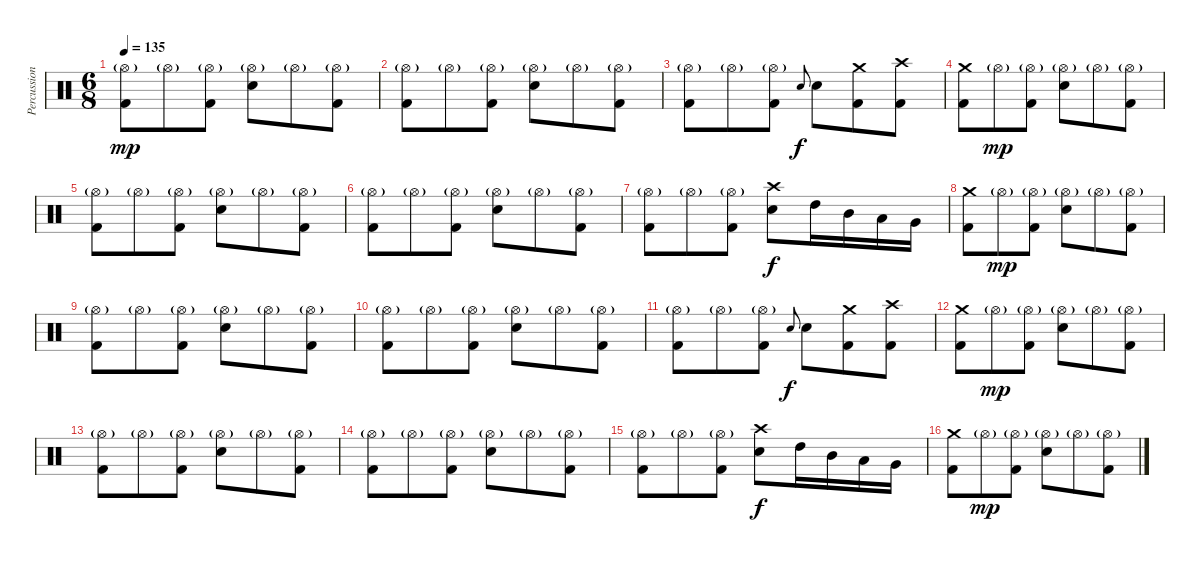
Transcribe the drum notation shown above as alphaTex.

\track ("Percussion" "Percussion") {instrument percussion}
\staff {score}
\articulation defaults
\ts (6 8)
\tempo 135
\clef neutral
\ks c
("Hi-Hat (open)"{g} "Kick (hit) 2").8{dy mp} "Hi-Hat (open)"{g}.8 ("Hi-Hat (open)"{g} "Kick (hit) 2").8 ("Hi-Hat (open)"{g} "Electric Snare (hit)").8 "Hi-Hat (open)"{g}.8 ("Hi-Hat (open)"{g} "Kick (hit) 2").8 |
("Hi-Hat (open)"{g} "Kick (hit) 2").8 "Hi-Hat (open)"{g}.8 ("Hi-Hat (open)"{g} "Kick (hit) 2").8 ("Hi-Hat (open)"{g} "Electric Snare (hit)").8 "Hi-Hat (open)"{g}.8 ("Hi-Hat (open)"{g} "Kick (hit) 2").8 |
("Hi-Hat (open)"{g} "Kick (hit) 2").8 "Hi-Hat (open)"{g}.8 ("Hi-Hat (open)"{g} "Kick (hit) 2").8 "Electric Snare (hit)".8{gr onbeat dy f} "Electric Snare (hit)".8 ("Crash medium (hit)" "Kick (hit) 2").8 ("Crash high (hit)" "Kick (hit) 2").8 |
("Crash medium (hit)" "Kick (hit) 2").8 "Hi-Hat (open)"{g}.8{dy mp} ("Hi-Hat (open)"{g} "Kick (hit) 2").8 ("Hi-Hat (open)"{g} "Electric Snare (hit)").8 "Hi-Hat (open)"{g}.8 ("Hi-Hat (open)"{g} "Kick (hit) 2").8 |
("Hi-Hat (open)"{g} "Kick (hit) 2").8 "Hi-Hat (open)"{g}.8 ("Hi-Hat (open)"{g} "Kick (hit) 2").8 ("Hi-Hat (open)"{g} "Electric Snare (hit)").8 "Hi-Hat (open)"{g}.8 ("Hi-Hat (open)"{g} "Kick (hit) 2").8 |
("Hi-Hat (open)"{g} "Kick (hit) 2").8 "Hi-Hat (open)"{g}.8 ("Hi-Hat (open)"{g} "Kick (hit) 2").8 ("Hi-Hat (open)"{g} "Electric Snare (hit)").8 "Hi-Hat (open)"{g}.8 ("Hi-Hat (open)"{g} "Kick (hit) 2").8 |
("Hi-Hat (open)"{g} "Kick (hit) 2").8 "Hi-Hat (open)"{g}.8 ("Hi-Hat (open)"{g} "Kick (hit) 2").8 ("Crash high (hit)" "Electric Snare (hit)").8{dy f} "High Tom (hit)".16 "Mid Tom (hit)".16 "Low Tom (hit)".16 "Very Low Tom (hit)".16 |
("Crash medium (hit)" "Kick (hit) 2").8 "Hi-Hat (open)"{g}.8{dy mp} ("Hi-Hat (open)"{g} "Kick (hit) 2").8 ("Hi-Hat (open)"{g} "Electric Snare (hit)").8 "Hi-Hat (open)"{g}.8 ("Hi-Hat (open)"{g} "Kick (hit) 2").8 |
("Hi-Hat (open)"{g} "Kick (hit) 2").8 "Hi-Hat (open)"{g}.8 ("Hi-Hat (open)"{g} "Kick (hit) 2").8 ("Hi-Hat (open)"{g} "Electric Snare (hit)").8 "Hi-Hat (open)"{g}.8 ("Hi-Hat (open)"{g} "Kick (hit) 2").8 |
("Hi-Hat (open)"{g} "Kick (hit) 2").8 "Hi-Hat (open)"{g}.8 ("Hi-Hat (open)"{g} "Kick (hit) 2").8 ("Hi-Hat (open)"{g} "Electric Snare (hit)").8 "Hi-Hat (open)"{g}.8 ("Hi-Hat (open)"{g} "Kick (hit) 2").8 |
("Hi-Hat (open)"{g} "Kick (hit) 2").8 "Hi-Hat (open)"{g}.8 ("Hi-Hat (open)"{g} "Kick (hit) 2").8 "Electric Snare (hit)".8{gr onbeat dy f} "Electric Snare (hit)".8 ("Crash medium (hit)" "Kick (hit) 2").8 ("Crash high (hit)" "Kick (hit) 2").8 |
("Crash medium (hit)" "Kick (hit) 2").8 "Hi-Hat (open)"{g}.8{dy mp} ("Hi-Hat (open)"{g} "Kick (hit) 2").8 ("Hi-Hat (open)"{g} "Electric Snare (hit)").8 "Hi-Hat (open)"{g}.8 ("Hi-Hat (open)"{g} "Kick (hit) 2").8 |
("Hi-Hat (open)"{g} "Kick (hit) 2").8 "Hi-Hat (open)"{g}.8 ("Hi-Hat (open)"{g} "Kick (hit) 2").8 ("Hi-Hat (open)"{g} "Electric Snare (hit)").8 "Hi-Hat (open)"{g}.8 ("Hi-Hat (open)"{g} "Kick (hit) 2").8 |
("Hi-Hat (open)"{g} "Kick (hit) 2").8 "Hi-Hat (open)"{g}.8 ("Hi-Hat (open)"{g} "Kick (hit) 2").8 ("Hi-Hat (open)"{g} "Electric Snare (hit)").8 "Hi-Hat (open)"{g}.8 ("Hi-Hat (open)"{g} "Kick (hit) 2").8 |
("Hi-Hat (open)"{g} "Kick (hit) 2").8 "Hi-Hat (open)"{g}.8 ("Hi-Hat (open)"{g} "Kick (hit) 2").8 ("Crash high (hit)" "Electric Snare (hit)").8{dy f} "High Tom (hit)".16 "Mid Tom (hit)".16 "Low Tom (hit)".16 "Very Low Tom (hit)".16 |
("Crash medium (hit)" "Kick (hit) 2").8 "Hi-Hat (open)"{g}.8{dy mp} ("Hi-Hat (open)"{g} "Kick (hit) 2").8 ("Hi-Hat (open)"{g} "Electric Snare (hit)").8 "Hi-Hat (open)"{g}.8 ("Hi-Hat (open)"{g} "Kick (hit) 2").8
